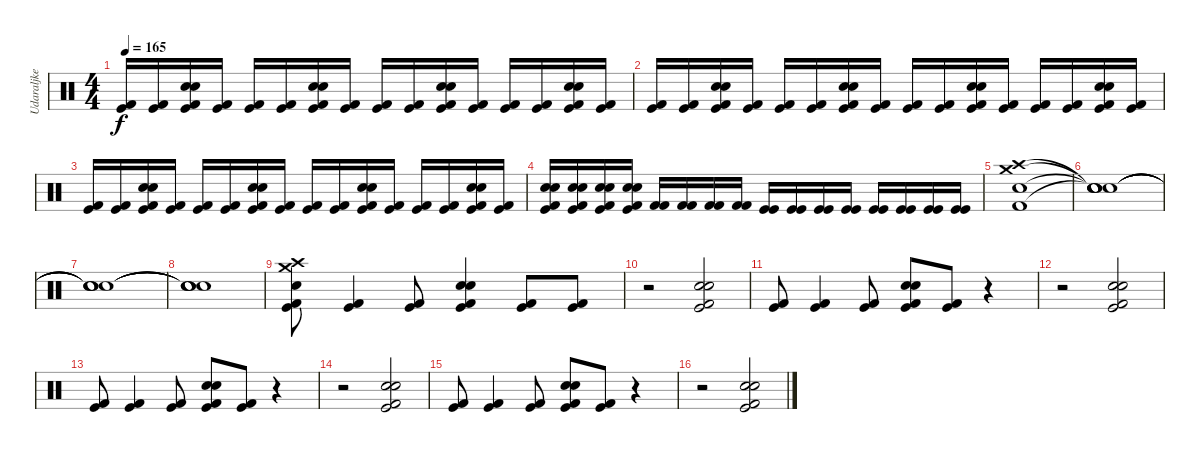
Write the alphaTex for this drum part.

\track ("Udaraljke" "Udaraljke") {instrument percussion}
\staff {score}
\articulation defaults
\ts (4 4)
\tempo 165
\clef neutral
\ks c
("Kick (hit) 2" "Kick (hit)").16{dy f} ("Kick (hit) 2" "Kick (hit)").16 ("Snare (hit) 2" "Snare (hit) 2" "Kick (hit) 2" "Kick (hit)").16 ("Kick (hit) 2" "Kick (hit)").16 ("Kick (hit) 2" "Kick (hit)").16 ("Kick (hit) 2" "Kick (hit)").16 ("Snare (hit) 2" "Snare (hit) 2" "Kick (hit) 2" "Kick (hit)").16 ("Kick (hit) 2" "Kick (hit)").16 ("Kick (hit) 2" "Kick (hit)").16 ("Kick (hit) 2" "Kick (hit)").16 ("Snare (hit) 2" "Snare (hit) 2" "Kick (hit) 2" "Kick (hit)").16 ("Kick (hit) 2" "Kick (hit)").16 ("Kick (hit) 2" "Kick (hit)").16 ("Kick (hit) 2" "Kick (hit)").16 ("Snare (hit) 2" "Snare (hit) 2" "Kick (hit) 2" "Kick (hit)").16 ("Kick (hit) 2" "Kick (hit)").16 |
("Kick (hit) 2" "Kick (hit)").16 ("Kick (hit) 2" "Kick (hit)").16 ("Snare (hit) 2" "Snare (hit) 2" "Kick (hit) 2" "Kick (hit)").16 ("Kick (hit) 2" "Kick (hit)").16 ("Kick (hit) 2" "Kick (hit)").16 ("Kick (hit) 2" "Kick (hit)").16 ("Snare (hit) 2" "Snare (hit) 2" "Kick (hit) 2" "Kick (hit)").16 ("Kick (hit) 2" "Kick (hit)").16 ("Kick (hit) 2" "Kick (hit)").16 ("Kick (hit) 2" "Kick (hit)").16 ("Snare (hit) 2" "Snare (hit) 2" "Kick (hit) 2" "Kick (hit)").16 ("Kick (hit) 2" "Kick (hit)").16 ("Kick (hit) 2" "Kick (hit)").16 ("Kick (hit) 2" "Kick (hit)").16 ("Snare (hit) 2" "Snare (hit) 2" "Kick (hit) 2" "Kick (hit)").16 ("Kick (hit) 2" "Kick (hit)").16 |
("Kick (hit) 2" "Kick (hit)").16 ("Kick (hit) 2" "Kick (hit)").16 ("Snare (hit) 2" "Snare (hit) 2" "Kick (hit) 2" "Kick (hit)").16 ("Kick (hit) 2" "Kick (hit)").16 ("Kick (hit) 2" "Kick (hit)").16 ("Kick (hit) 2" "Kick (hit)").16 ("Snare (hit) 2" "Snare (hit) 2" "Kick (hit) 2" "Kick (hit)").16 ("Kick (hit) 2" "Kick (hit)").16 ("Kick (hit) 2" "Kick (hit)").16 ("Kick (hit) 2" "Kick (hit)").16 ("Snare (hit) 2" "Snare (hit) 2" "Kick (hit) 2" "Kick (hit)").16 ("Kick (hit) 2" "Kick (hit)").16 ("Kick (hit) 2" "Kick (hit)").16 ("Kick (hit) 2" "Kick (hit)").16 ("Snare (hit) 2" "Snare (hit) 2" "Kick (hit) 2" "Kick (hit)").16 ("Kick (hit) 2" "Kick (hit)").16 |
("Snare (hit) 2" "Snare (hit) 2" "Kick (hit) 2" "Kick (hit)").16 ("Snare (hit) 2" "Snare (hit) 2" "Kick (hit) 2" "Kick (hit)").16 ("Snare (hit) 2" "Snare (hit) 2" "Kick (hit) 2" "Kick (hit)").16 ("Snare (hit) 2" "Snare (hit) 2" "Kick (hit) 2" "Kick (hit)").16 ("Kick (hit) 2" "Kick (hit) 2").16 ("Kick (hit) 2" "Kick (hit) 2").16 ("Kick (hit) 2" "Kick (hit) 2").16 ("Kick (hit) 2" "Kick (hit) 2").16 ("Kick (hit)" "Kick (hit)").16 ("Kick (hit)" "Kick (hit)").16 ("Kick (hit)" "Kick (hit)").16 ("Kick (hit)" "Kick (hit)").16 ("Kick (hit)" "Kick (hit)").16 ("Kick (hit)" "Kick (hit)").16 ("Kick (hit)" "Kick (hit)").16 ("Kick (hit)" "Kick (hit)").16 |
("Crash medium (hit)" "Crash high (hit)" "Snare (hit) 2" "Kick (hit) 2").1 |
("Snare (hit)"{t} "Snare (hit)"{t} "Snare (hit)"{t} "Snare (hit)"{t}).1 |
("Snare (hit)"{t} "Snare (hit)"{t} "Snare (hit)"{t} "Snare (hit)"{t}).1 |
("Snare (hit)"{t} "Snare (hit)"{t} "Snare (hit)"{t} "Snare (hit)"{t}).1 |
("Crash medium (hit)" "Crash high (hit)" "Snare (hit) 2" "Kick (hit) 2" "Kick (hit)").8 ("Kick (hit) 2" "Kick (hit)").4 ("Kick (hit) 2" "Kick (hit)").8 ("Snare (hit) 2" "Snare (hit) 2" "Kick (hit) 2" "Kick (hit)").4 ("Kick (hit) 2" "Kick (hit)").8 ("Kick (hit) 2" "Kick (hit)").8 |
r.2 ("Snare (hit) 2" "Snare (hit) 2" "Kick (hit) 2" "Kick (hit)").2 |
("Kick (hit) 2" "Kick (hit)").8 ("Kick (hit) 2" "Kick (hit)").4 ("Kick (hit) 2" "Kick (hit)").8 ("Snare (hit) 2" "Snare (hit) 2" "Kick (hit) 2" "Kick (hit)").8 ("Kick (hit) 2" "Kick (hit)").8 r.4 |
r.2 ("Snare (hit) 2" "Snare (hit) 2" "Kick (hit) 2" "Kick (hit)").2 |
("Kick (hit) 2" "Kick (hit)").8 ("Kick (hit) 2" "Kick (hit)").4 ("Kick (hit) 2" "Kick (hit)").8 ("Snare (hit) 2" "Snare (hit) 2" "Kick (hit) 2" "Kick (hit)").8 ("Kick (hit) 2" "Kick (hit)").8 r.4 |
r.2 ("Snare (hit) 2" "Snare (hit) 2" "Kick (hit) 2" "Kick (hit)").2 |
("Kick (hit) 2" "Kick (hit)").8 ("Kick (hit) 2" "Kick (hit)").4 ("Kick (hit) 2" "Kick (hit)").8 ("Snare (hit) 2" "Snare (hit) 2" "Kick (hit) 2" "Kick (hit)").8 ("Kick (hit) 2" "Kick (hit)").8 r.4 |
r.2 ("Snare (hit) 2" "Snare (hit) 2" "Kick (hit) 2" "Kick (hit)").2
